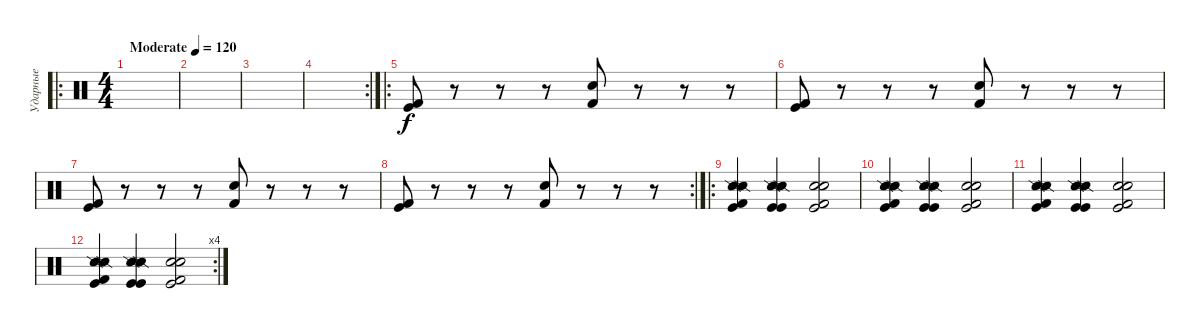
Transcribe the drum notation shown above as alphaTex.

\track ("Ударные" "Ударные") {instrument percussion}
\staff {score}
\articulation defaults
\ro
\ts (4 4)
\tempo (120 "Moderate")
\clef neutral
\ks c
|
|
|
\rc 2
|
\ro
("Kick (hit)" "Kick (hit) 2").8 r.8 r.8 r.8 ("Kick (hit) 2" "Snare (hit) 2").8 r.8 r.8 r.8 |
("Kick (hit)" "Kick (hit) 2").8 r.8 r.8 r.8 ("Kick (hit) 2" "Snare (hit) 2").8 r.8 r.8 r.8 |
("Kick (hit)" "Kick (hit) 2").8 r.8 r.8 r.8 ("Kick (hit) 2" "Snare (hit) 2").8 r.8 r.8 r.8 |
\rc 2
("Kick (hit)" "Kick (hit) 2").8 r.8 r.8 r.8 ("Kick (hit) 2" "Snare (hit) 2").8 r.8 r.8 r.8 |
\ro
("Snare (side stick) 2" "Snare (side stick) 2" "Kick (hit) 2" "Kick (hit)").4 ("Snare (side stick) 2" "Snare (side stick) 2" "Kick (hit)" "Kick (hit)").4 ("Snare (hit) 2" "Snare (hit) 2" "Kick (hit)" "Kick (hit) 2").2 |
("Snare (side stick) 2" "Snare (side stick) 2" "Kick (hit) 2" "Kick (hit)").4 ("Snare (side stick) 2" "Snare (side stick) 2" "Kick (hit)" "Kick (hit)").4 ("Snare (hit) 2" "Snare (hit) 2" "Kick (hit)" "Kick (hit) 2").2 |
("Snare (side stick) 2" "Snare (side stick) 2" "Kick (hit) 2" "Kick (hit)").4 ("Snare (side stick) 2" "Snare (side stick) 2" "Kick (hit)" "Kick (hit)").4 ("Snare (hit) 2" "Snare (hit) 2" "Kick (hit)" "Kick (hit) 2").2 |
\rc 4
("Snare (side stick) 2" "Snare (side stick) 2" "Kick (hit) 2" "Kick (hit)").4 ("Snare (side stick) 2" "Snare (side stick) 2" "Kick (hit)" "Kick (hit)").4 ("Snare (hit) 2" "Snare (hit) 2" "Kick (hit)" "Kick (hit) 2").2
